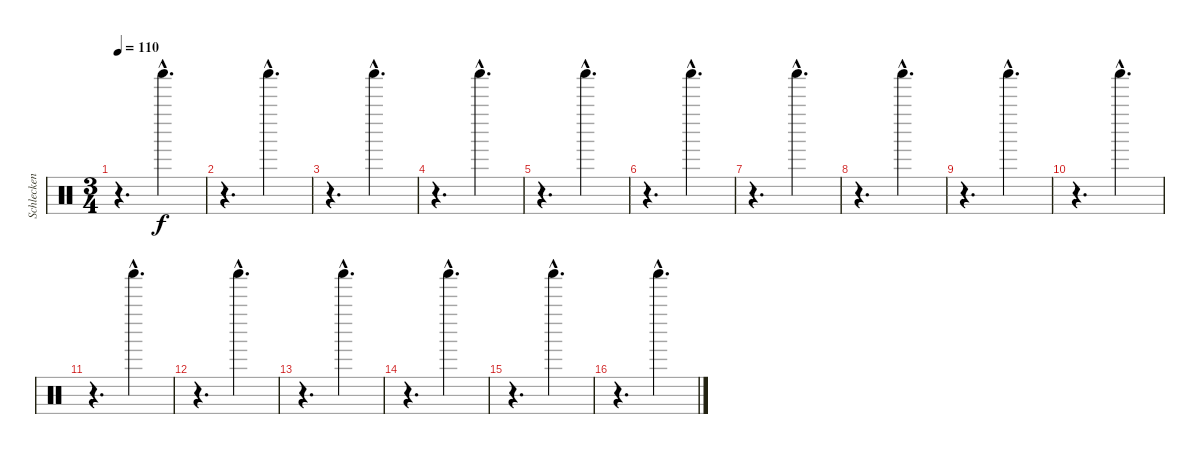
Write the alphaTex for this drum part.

\track ("Schlecken (Bela)" "Schlecken ") {instrument percussion}
\staff {score}
\articulation defaults
\ts (3 4)
\tempo 110
\clef neutral
\ks c
r.4{d dy f} "Shaker (hit)"{hac}.4{d} |
r.4{d} "Shaker (hit)"{hac}.4{d} |
r.4{d} "Shaker (hit)"{hac}.4{d} |
r.4{d} "Shaker (hit)"{hac}.4{d} |
r.4{d} "Shaker (hit)"{hac}.4{d} |
r.4{d} "Shaker (hit)"{hac}.4{d} |
r.4{d} "Shaker (hit)"{hac}.4{d} |
r.4{d} "Shaker (hit)"{hac}.4{d} |
r.4{d} "Shaker (hit)"{hac}.4{d} |
r.4{d} "Shaker (hit)"{hac}.4{d} |
r.4{d} "Shaker (hit)"{hac}.4{d} |
r.4{d} "Shaker (hit)"{hac}.4{d} |
r.4{d} "Shaker (hit)"{hac}.4{d} |
r.4{d} "Shaker (hit)"{hac}.4{d} |
r.4{d} "Shaker (hit)"{hac}.4{d} |
r.4{d} "Shaker (hit)"{hac}.4{d}
